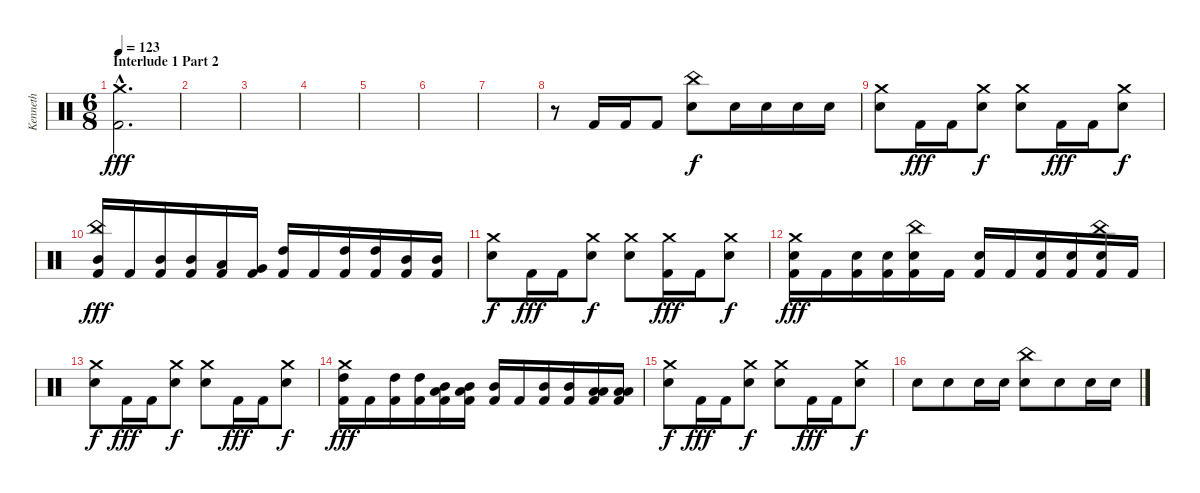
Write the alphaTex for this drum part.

\track ("Kenneth" "Kenneth") {instrument percussion}
\staff {score}
\articulation defaults
\ts (6 8)
\section ("" "Interlude 1 Part 2")
\tempo 123
\clef neutral
\ks c
("Crash medium (hit)"{hac} "Kick (hit) 2"{hac}).2{d dy fff} |
|
|
|
|
|
|
r.8 "Kick (hit) 2".16 "Kick (hit) 2".16 "Kick (hit) 2".8 ("China (hit)" "Snare (hit) 2").8{dy f} "Snare (hit) 2".16 "Snare (hit) 2".16 "Snare (hit) 2".16 "Snare (hit) 2".16 |
("Crash medium (hit)" "Snare (hit) 2").8 "Kick (hit) 2".16{dy fff} "Kick (hit) 2".16 ("Crash medium (hit)" "Snare (hit) 2").8{dy f} ("Crash medium (hit)" "Snare (hit) 2").8 "Kick (hit) 2".16{dy fff} "Kick (hit) 2".16 ("Crash medium (hit)" "Snare (hit) 2").8{dy f} |
("China (hit)" "Mid Tom (hit)" "Kick (hit) 2").16{dy fff} "Kick (hit) 2".16 ("Mid Tom (hit)" "Kick (hit) 2").16 ("Mid Tom (hit)" "Kick (hit) 2").16 ("Low Tom (hit)" "Kick (hit) 2").16 ("Very Low Tom (hit)" "Kick (hit) 2").16 ("High Tom (hit)" "Kick (hit) 2").16 "Kick (hit) 2".16 ("High Tom (hit)" "Kick (hit) 2").16 ("High Tom (hit)" "Kick (hit) 2").16 ("Mid Tom (hit)" "Kick (hit) 2").16 ("Mid Tom (hit)" "Kick (hit) 2").16 |
("Crash medium (hit)" "Snare (hit) 2").8{dy f} "Kick (hit) 2".16{dy fff} "Kick (hit) 2".16 ("Crash medium (hit)" "Snare (hit) 2").8{dy f} ("Crash medium (hit)" "Snare (hit) 2").8 ("Crash medium (hit)" "Kick (hit) 2").16{dy fff} "Kick (hit) 2".16 ("Crash medium (hit)" "Snare (hit) 2").8{dy f} |
("Crash medium (hit)" "Snare (hit) 2" "Kick (hit) 2").16{dy fff} "Kick (hit) 2".16 ("Snare (hit) 2" "Kick (hit) 2").16 ("Snare (hit) 2" "Kick (hit) 2").16 ("China (hit)" "Snare (hit) 2" "Kick (hit) 2").16 "Kick (hit) 2".16 ("Snare (hit) 2" "Kick (hit) 2").16 "Kick (hit) 2".16 ("Snare (hit) 2" "Kick (hit) 2").16 ("Snare (hit) 2" "Kick (hit) 2").16 ("China (hit)" "Snare (hit) 2" "Kick (hit) 2").16 "Kick (hit) 2".16 |
("Crash medium (hit)" "Snare (hit) 2").8{dy f} "Kick (hit) 2".16{dy fff} "Kick (hit) 2".16 ("Crash medium (hit)" "Snare (hit) 2").8{dy f} ("Crash medium (hit)" "Snare (hit) 2").8 "Kick (hit) 2".16{dy fff} "Kick (hit) 2".16 ("Crash medium (hit)" "Snare (hit) 2").8{dy f} |
("Crash medium (hit)" "High Tom (hit)" "Kick (hit) 2").16{dy fff} "Kick (hit) 2".16 ("High Tom (hit)" "Kick (hit) 2").16 ("High Tom (hit)" "Kick (hit) 2").16 ("Mid Tom (hit)" "Low Floor Tom (hit)" "Kick (hit) 2").16 ("Mid Tom (hit)" "Low Floor Tom (hit)" "Kick (hit) 2").16 ("Mid Tom (hit)" "Kick (hit) 2").16 "Kick (hit) 2".16 ("Mid Tom (hit)" "Kick (hit) 2").16 ("Mid Tom (hit)" "Kick (hit) 2").16 ("Low Tom (hit)" "Low Floor Tom (hit)" "Kick (hit) 2").16 ("Low Tom (hit)" "Low Floor Tom (hit)" "Kick (hit) 2").16 |
("Crash medium (hit)" "Snare (hit) 2").8{dy f} "Kick (hit) 2".16{dy fff} "Kick (hit) 2".16 ("Crash medium (hit)" "Snare (hit) 2").8{dy f} ("Crash medium (hit)" "Snare (hit) 2").8 "Kick (hit) 2".16{dy fff} "Kick (hit) 2".16 ("Crash medium (hit)" "Snare (hit) 2").8{dy f} |
"Snare (hit) 2".8 "Snare (hit) 2".8 "Snare (hit) 2".16 "Snare (hit) 2".16 ("China (hit)" "Snare (hit) 2").8 "Snare (hit) 2".8 "Snare (hit) 2".16 "Snare (hit) 2".16
